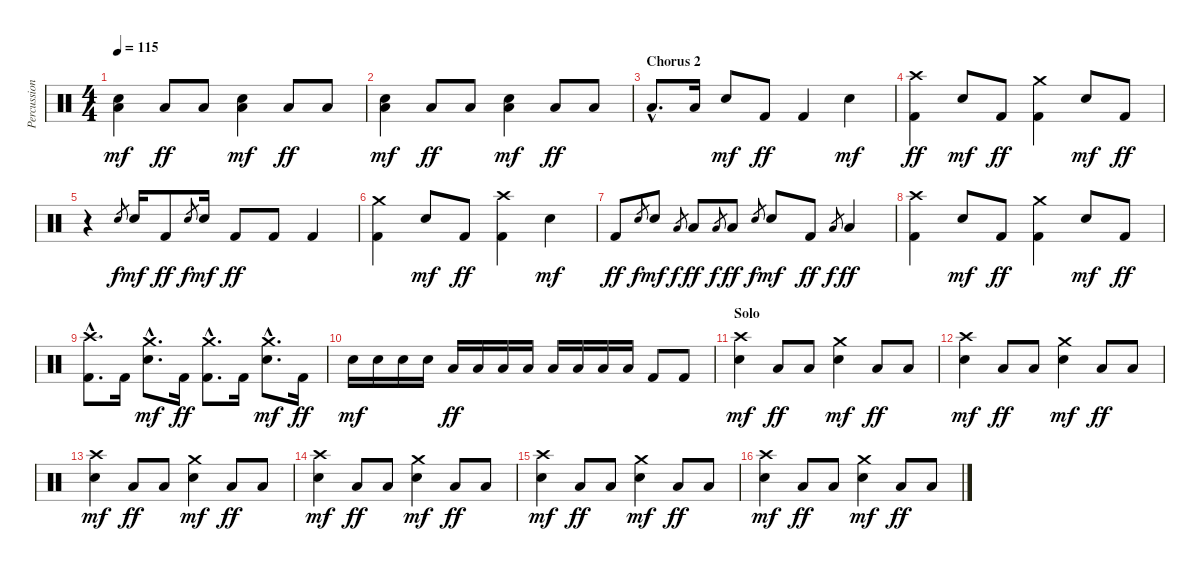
\track ("Percussion" "Percussion") {instrument percussion}
\staff {score}
\articulation defaults
\ts (4 4)
\tempo 115
\clef neutral
\ks c
("Low Floor Tom (hit)" "Snare (hit) 2").4{dy mf} "Low Floor Tom (hit)".8{dy ff} "Low Floor Tom (hit)".8 ("Low Floor Tom (hit)" "Snare (hit) 2").4{dy mf} "Low Floor Tom (hit)".8{dy ff} "Low Floor Tom (hit)".8 |
("Low Floor Tom (hit)" "Snare (hit) 2").4{dy mf} "Low Floor Tom (hit)".8{dy ff} "Low Floor Tom (hit)".8 ("Low Floor Tom (hit)" "Snare (hit) 2").4{dy mf} "Low Floor Tom (hit)".8{dy ff} "Low Floor Tom (hit)".8 |
\section ("" "Chorus 2")
"Low Floor Tom (hit)"{hac}.8{d} "Low Floor Tom (hit)".16 "Snare (hit) 2".8{dy mf} "Kick (hit) 2".8{dy ff} "Kick (hit) 2".4 "Snare (hit) 2".4{dy mf} |
("Crash high (hit)" "Kick (hit) 2").4{dy ff} "Snare (hit) 2".8{dy mf} "Kick (hit) 2".8{dy ff} ("Crash medium (hit)" "Kick (hit) 2").4 "Snare (hit) 2".8{dy mf} "Kick (hit) 2".8{dy ff} |
r.4 "Snare (hit) 2".8{gr dy f} "Snare (hit) 2".16{dy mf} "Kick (hit) 2".8{dy ff} "Snare (hit) 2".8{gr dy f} "Snare (hit) 2".16{dy mf} "Kick (hit) 2".8{dy ff} "Kick (hit) 2".8 "Kick (hit) 2".4 |
("Crash medium (hit)" "Kick (hit) 2").4 "Snare (hit) 2".8{dy mf} "Kick (hit) 2".8{dy ff} ("Crash high (hit)" "Kick (hit) 2").4 "Snare (hit) 2".4{dy mf} |
"Kick (hit) 2".8{dy ff} "Snare (hit) 2".8{gr dy f} "Snare (hit) 2".8{dy mf} "Low Tom (hit)".8{gr dy f} "Low Tom (hit)".8{dy ff} "Low Floor Tom (hit)".8{gr dy f} "Low Floor Tom (hit)".8{dy ff} "Snare (hit) 2".8{gr dy f} "Snare (hit) 2".8{dy mf} "Kick (hit) 2".8{dy ff} "Low Floor Tom (hit)".8{gr dy f} "Low Floor Tom (hit)".4{dy ff} |
("Crash high (hit)" "Kick (hit) 2").4 "Snare (hit) 2".8{dy mf} "Kick (hit) 2".8{dy ff} ("Crash medium (hit)" "Kick (hit) 2").4 "Snare (hit) 2".8{dy mf} "Kick (hit) 2".8{dy ff} |
("Crash high (hit)"{hac} "Kick (hit) 2"{hac}).8{d} "Kick (hit) 2".16 ("Crash medium (hit)"{hac} "Snare (hit) 2"{hac}).8{d dy mf} "Kick (hit) 2".16{dy ff} ("Crash medium (hit)"{hac} "Kick (hit) 2"{hac}).8{d} "Kick (hit) 2".16 ("Crash medium (hit)"{hac} "Snare (hit) 2"{hac}).8{d dy mf} "Kick (hit) 2".16{dy ff} |
"Snare (hit) 2".16{dy mf} "Snare (hit) 2".16 "Snare (hit) 2".16 "Snare (hit) 2".16 "Low Tom (hit)".16{dy ff} "Low Tom (hit)".16 "Low Tom (hit)".16 "Low Tom (hit)".16 "Low Floor Tom (hit)".16 "Low Floor Tom (hit)".16 "Low Floor Tom (hit)".16 "Low Floor Tom (hit)".16 "Kick (hit) 2".8 "Kick (hit) 2".8 |
\section ("" "Solo")
("Crash high (hit)" "Snare (hit) 2").4{dy mf} "Low Floor Tom (hit)".8{dy ff} "Low Floor Tom (hit)".8 ("Crash medium (hit)" "Snare (hit) 2").4{dy mf} "Low Floor Tom (hit)".8{dy ff} "Low Floor Tom (hit)".8 |
("Crash high (hit)" "Snare (hit) 2").4{dy mf} "Low Floor Tom (hit)".8{dy ff} "Low Floor Tom (hit)".8 ("Crash medium (hit)" "Snare (hit) 2").4{dy mf} "Low Floor Tom (hit)".8{dy ff} "Low Floor Tom (hit)".8 |
("Crash high (hit)" "Snare (hit) 2").4{dy mf} "Low Floor Tom (hit)".8{dy ff} "Low Floor Tom (hit)".8 ("Crash medium (hit)" "Snare (hit) 2").4{dy mf} "Low Floor Tom (hit)".8{dy ff} "Low Floor Tom (hit)".8 |
("Crash high (hit)" "Snare (hit) 2").4{dy mf} "Low Floor Tom (hit)".8{dy ff} "Low Floor Tom (hit)".8 ("Crash medium (hit)" "Snare (hit) 2").4{dy mf} "Low Floor Tom (hit)".8{dy ff} "Low Floor Tom (hit)".8 |
("Crash high (hit)" "Snare (hit) 2").4{dy mf} "Low Floor Tom (hit)".8{dy ff} "Low Floor Tom (hit)".8 ("Crash medium (hit)" "Snare (hit) 2").4{dy mf} "Low Floor Tom (hit)".8{dy ff} "Low Floor Tom (hit)".8 |
("Crash high (hit)" "Snare (hit) 2").4{dy mf} "Low Floor Tom (hit)".8{dy ff} "Low Floor Tom (hit)".8 ("Crash medium (hit)" "Snare (hit) 2").4{dy mf} "Low Floor Tom (hit)".8{dy ff} "Low Floor Tom (hit)".8
